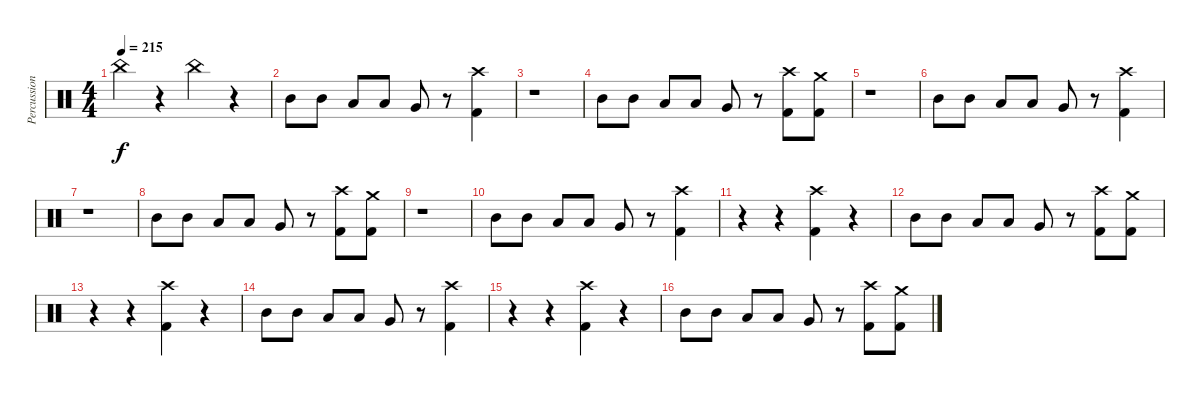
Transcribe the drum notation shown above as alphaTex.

\track ("Percussion" "Percussion") {instrument percussion}
\staff {score}
\articulation defaults
\ts (4 4)
\tempo 215
\clef neutral
\ks c "China (hit)".4{dy f}
r.4 "China (hit)".4 r.4 |
"Mid Tom (hit)".8 "Mid Tom (hit)".8 "Low Tom (hit)".8 "Low Tom (hit)".8 "Very Low Tom (hit)".8 r.8 ("Crash high (hit)" "Kick (hit) 2").4 |
r.1 |
"Mid Tom (hit)".8 "Mid Tom (hit)".8 "Low Tom (hit)".8 "Low Tom (hit)".8 "Very Low Tom (hit)".8 r.8 ("Crash high (hit)" "Kick (hit) 2").8 ("Crash medium (hit)" "Kick (hit) 2").8 |
r.1 |
"Mid Tom (hit)".8 "Mid Tom (hit)".8 "Low Tom (hit)".8 "Low Tom (hit)".8 "Very Low Tom (hit)".8 r.8 ("Crash high (hit)" "Kick (hit) 2").4 |
r.1 |
"Mid Tom (hit)".8 "Mid Tom (hit)".8 "Low Tom (hit)".8 "Low Tom (hit)".8 "Very Low Tom (hit)".8 r.8 ("Crash high (hit)" "Kick (hit) 2").8 ("Crash medium (hit)" "Kick (hit) 2").8 |
r.1 |
"Mid Tom (hit)".8 "Mid Tom (hit)".8 "Low Tom (hit)".8 "Low Tom (hit)".8 "Very Low Tom (hit)".8 r.8 ("Crash high (hit)" "Kick (hit) 2").4 |
r.4 r.4 ("Crash high (hit)" "Kick (hit) 2").4 r.4 |
"Mid Tom (hit)".8 "Mid Tom (hit)".8 "Low Tom (hit)".8 "Low Tom (hit)".8 "Very Low Tom (hit)".8 r.8 ("Crash high (hit)" "Kick (hit) 2").8 ("Crash medium (hit)" "Kick (hit) 2").8 |
r.4 r.4 ("Crash high (hit)" "Kick (hit) 2").4 r.4 |
"Mid Tom (hit)".8 "Mid Tom (hit)".8 "Low Tom (hit)".8 "Low Tom (hit)".8 "Very Low Tom (hit)".8 r.8 ("Crash high (hit)" "Kick (hit) 2").4 |
r.4 r.4 ("Crash high (hit)" "Kick (hit) 2").4 r.4 |
"Mid Tom (hit)".8 "Mid Tom (hit)".8 "Low Tom (hit)".8 "Low Tom (hit)".8 "Very Low Tom (hit)".8 r.8 ("Crash high (hit)" "Kick (hit) 2").8 ("Crash medium (hit)" "Kick (hit) 2").8
